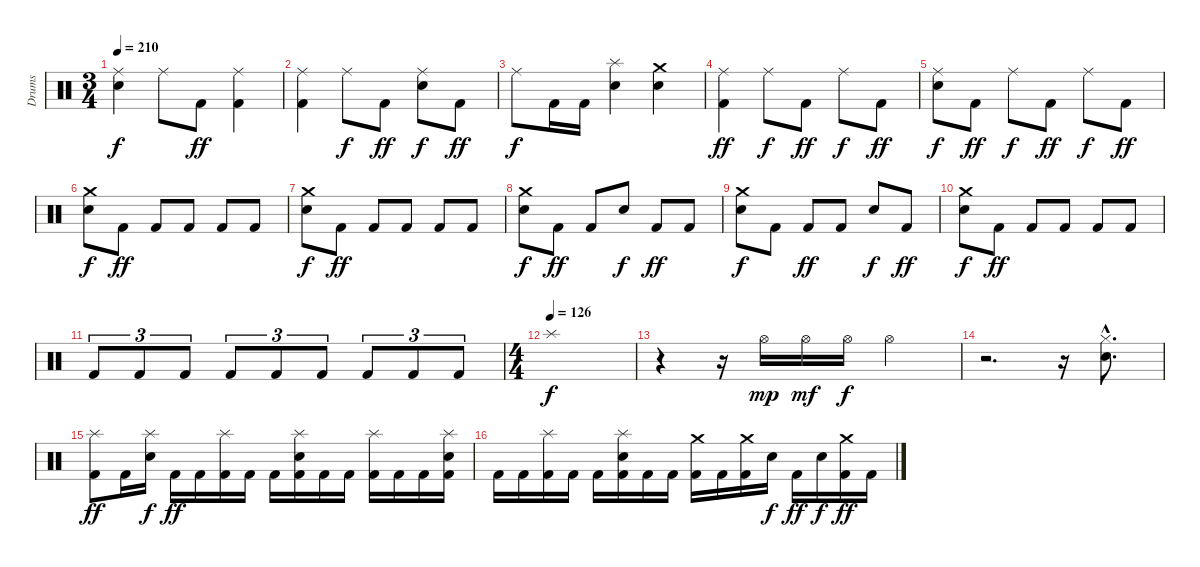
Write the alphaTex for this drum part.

\track ("Drums" "Drums") {instrument percussion}
\staff {score}
\articulation defaults
\ts (3 4)
\tempo 210
\clef neutral
\ks c
("Ride (middle)" "Electric Snare (hit)").4{dy f} "Ride (middle)".8 "Kick (hit) 2".8{dy ff} ("Ride (middle)" "Kick (hit) 2").4 |
("Ride (middle)" "Kick (hit) 2").4 "Ride (middle)".8{dy f} "Kick (hit) 2".8{dy ff} ("Ride (middle)" "Electric Snare (hit)").8{dy f} "Kick (hit) 2".8{dy ff} |
"Ride (middle)".8{dy f} "Kick (hit) 2".16 "Kick (hit) 2".16 ("Splash (hit)" "Electric Snare (hit)").4 ("Crash medium (hit)" "Electric Snare (hit)").4 |
("Ride (middle)" "Kick (hit) 2").4{dy ff} "Ride (middle)".8{dy f} "Kick (hit) 2".8{dy ff} "Ride (middle)".8{dy f} "Kick (hit) 2".8{dy ff} |
("Ride (middle)" "Electric Snare (hit)").8{dy f} "Kick (hit) 2".8{dy ff} "Ride (middle)".8{dy f} "Kick (hit) 2".8{dy ff} "Ride (middle)".8{dy f} "Kick (hit) 2".8{dy ff} |
("Crash medium (hit)" "Electric Snare (hit)").8{dy f} "Kick (hit) 2".8{dy ff} "Kick (hit) 2".8 "Kick (hit) 2".8 "Kick (hit) 2".8 "Kick (hit) 2".8 |
("Crash medium (hit)" "Electric Snare (hit)").8{dy f} "Kick (hit) 2".8{dy ff} "Kick (hit) 2".8 "Kick (hit) 2".8 "Kick (hit) 2".8 "Kick (hit) 2".8 |
("Crash medium (hit)" "Electric Snare (hit)").8{dy f} "Kick (hit) 2".8{dy ff} "Kick (hit) 2".8 "Electric Snare (hit)".8{dy f} "Kick (hit) 2".8{dy ff} "Kick (hit) 2".8 |
("Crash medium (hit)" "Electric Snare (hit)").8{dy f} "Kick (hit) 2".8 "Kick (hit) 2".8{dy ff} "Kick (hit) 2".8 "Electric Snare (hit)".8{dy f} "Kick (hit) 2".8{dy ff} |
("Crash medium (hit)" "Electric Snare (hit)").8{dy f} "Kick (hit) 2".8{dy ff} "Kick (hit) 2".8 "Kick (hit) 2".8 "Kick (hit) 2".8 "Kick (hit) 2".8 |
"Kick (hit) 2".8{tu (3 2)} "Kick (hit) 2".8{tu (3 2)} "Kick (hit) 2".8{tu (3 2)} "Kick (hit) 2".8{tu (3 2)} "Kick (hit) 2".8{tu (3 2)} "Kick (hit) 2".8{tu (3 2)} "Kick (hit) 2".8{tu (3 2)} "Kick (hit) 2".8{tu (3 2)} "Kick (hit) 2".8{tu (3 2)} |
\ts (4 4)
\tempo (126)
"Splash (hit)".1{dy f} |
r.4 r.16 "Hi-Hat (open)".16{dy mp} "Hi-Hat (open)".16{dy mf} "Hi-Hat (open)".16{dy f} "Hi-Hat (open)".2 |
r.2{d} r.16 ("Hi-Hat (closed)"{hac} "Electric Snare (hit)"{hac}).8{d} |
("Splash (hit)" "Kick (hit) 2").8{dy ff} "Kick (hit) 2".16 ("Splash (hit)" "Electric Snare (hit)").16{dy f} "Kick (hit) 2".16{dy ff} "Kick (hit) 2".16 ("Splash (hit)" "Kick (hit) 2").16 "Kick (hit) 2".16 "Kick (hit) 2".16 ("Splash (hit)" "Electric Snare (hit)" "Kick (hit) 2").16 "Kick (hit) 2".16 "Kick (hit) 2".16 ("Splash (hit)" "Kick (hit) 2").16 "Kick (hit) 2".16 "Kick (hit) 2".16 ("Splash (hit)" "Electric Snare (hit)" "Kick (hit) 2").16 |
"Kick (hit) 2".16 "Kick (hit) 2".16 ("Splash (hit)" "Kick (hit) 2").16 "Kick (hit) 2".16 "Kick (hit) 2".16 ("Splash (hit)" "Electric Snare (hit)" "Kick (hit) 2").16 "Kick (hit) 2".16 "Kick (hit) 2".16 ("Crash medium (hit)" "Kick (hit) 2").16 "Kick (hit) 2".16 ("Crash medium (hit)" "Kick (hit) 2").16 "Electric Snare (hit)".16{dy f} "Kick (hit) 2".16{dy ff} "Electric Snare (hit)".16{dy f} ("Crash medium (hit)" "Kick (hit) 2").16{dy ff} "Kick (hit) 2".16
